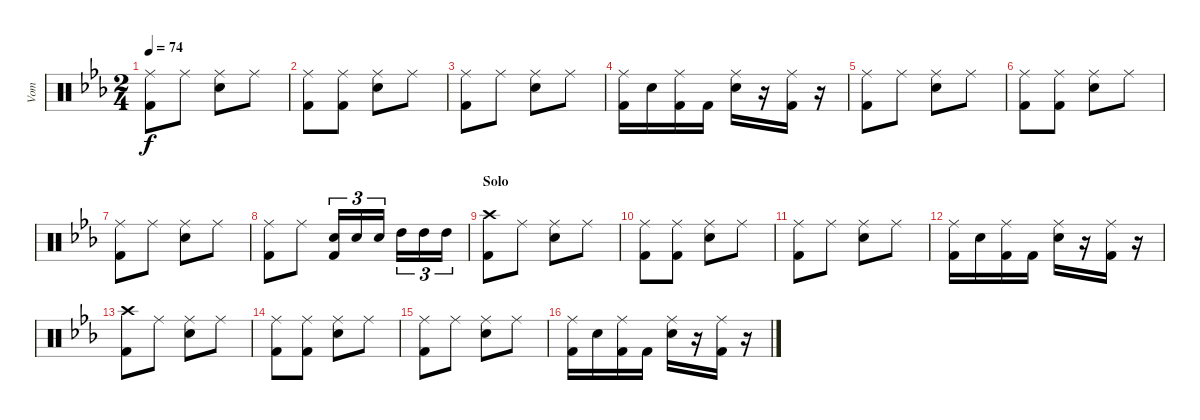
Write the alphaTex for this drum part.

\track ("Vom" "Vom") {instrument percussion}
\staff {score}
\articulation defaults
\ts (2 4)
\tempo 74
\clef neutral
\ks eb
("Ride (middle)" "Kick (hit) 2").8{dy f} "Ride (middle)".8 ("Ride (middle)" "Snare (hit) 2").8 "Ride (middle)".8 |
("Ride (middle)" "Kick (hit) 2").8 ("Ride (middle)" "Kick (hit) 2").8 ("Ride (middle)" "Snare (hit) 2").8 "Ride (middle)".8 |
("Ride (middle)" "Kick (hit) 2").8 "Ride (middle)".8 ("Ride (middle)" "Snare (hit) 2").8 "Ride (middle)".8 |
("Ride (middle)" "Kick (hit) 2").16 "Snare (hit) 2".16 ("Ride (middle)" "Kick (hit) 2").16 "Kick (hit) 2".16 ("Ride (middle)" "Snare (hit) 2").16 r.16 ("Ride (middle)" "Kick (hit) 2").16 r.16 |
("Ride (middle)" "Kick (hit) 2").8 "Ride (middle)".8 ("Ride (middle)" "Snare (hit) 2").8 "Ride (middle)".8 |
("Ride (middle)" "Kick (hit) 2").8 ("Ride (middle)" "Kick (hit) 2").8 ("Ride (middle)" "Snare (hit) 2").8 "Ride (middle)".8 |
("Ride (middle)" "Kick (hit) 2").8 "Ride (middle)".8 ("Ride (middle)" "Snare (hit) 2").8 "Ride (middle)".8 |
("Ride (middle)" "Kick (hit) 2").8 "Ride (middle)".8 ("Snare (hit) 2" "Kick (hit) 2").16{tu (3 2)} "Snare (hit) 2".16{tu (3 2)} "Snare (hit) 2".16{tu (3 2)} "High Tom (hit)".16{tu (3 2)} "High Tom (hit)".16{tu (3 2)} "High Tom (hit)".16{tu (3 2)} |
\section ("" "Solo")
("Crash high (hit)" "Kick (hit) 2").8 "Ride (middle)".8 ("Ride (middle)" "Snare (hit) 2").8 "Ride (middle)".8 |
("Ride (middle)" "Kick (hit) 2").8 ("Ride (middle)" "Kick (hit) 2").8 ("Ride (middle)" "Snare (hit) 2").8 "Ride (middle)".8 |
("Ride (middle)" "Kick (hit) 2").8 "Ride (middle)".8 ("Ride (middle)" "Snare (hit) 2").8 "Ride (middle)".8 |
("Ride (middle)" "Kick (hit) 2").16 "Snare (hit) 2".16 ("Ride (middle)" "Kick (hit) 2").16 "Kick (hit) 2".16 ("Ride (middle)" "Snare (hit) 2").16 r.16 ("Ride (middle)" "Kick (hit) 2").16 r.16 |
("Crash high (hit)" "Kick (hit) 2").8 "Ride (middle)".8 ("Ride (middle)" "Snare (hit) 2").8 "Ride (middle)".8 |
("Ride (middle)" "Kick (hit) 2").8 ("Ride (middle)" "Kick (hit) 2").8 ("Ride (middle)" "Snare (hit) 2").8 "Ride (middle)".8 |
("Ride (middle)" "Kick (hit) 2").8 "Ride (middle)".8 ("Ride (middle)" "Snare (hit) 2").8 "Ride (middle)".8 |
("Ride (middle)" "Kick (hit) 2").16 "Snare (hit) 2".16 ("Ride (middle)" "Kick (hit) 2").16 "Kick (hit) 2".16 ("Ride (middle)" "Snare (hit) 2").16 r.16 ("Ride (middle)" "Kick (hit) 2").16 r.16
